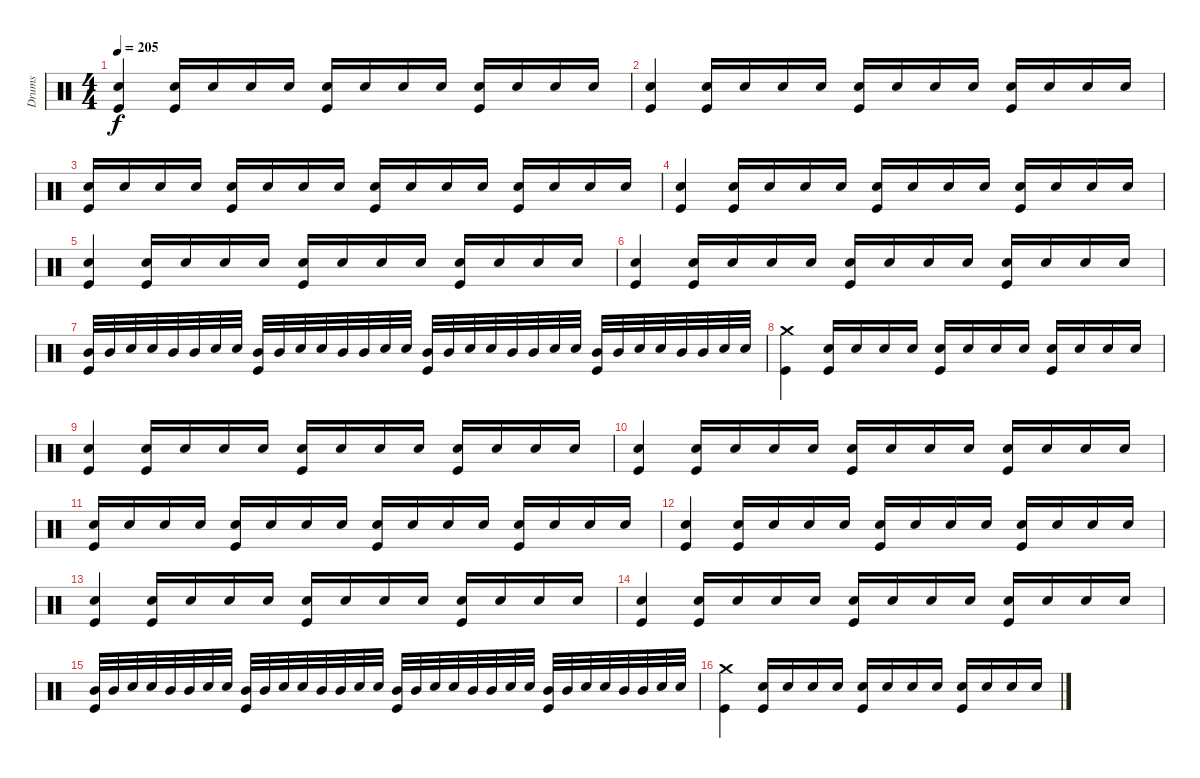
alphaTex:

\track ("Drums" "Drums") {instrument percussion}
\staff {score}
\articulation defaults
\ts (4 4)
\tempo 205
\clef neutral
\ks c
("Electric Snare (hit)" "Kick (hit)").4{dy f} ("Electric Snare (hit)" "Kick (hit)").16 "Electric Snare (hit)".16 "Electric Snare (hit)".16 "Electric Snare (hit)".16 ("Electric Snare (hit)" "Kick (hit)").16 "Electric Snare (hit)".16 "Electric Snare (hit)".16 "Electric Snare (hit)".16 ("Electric Snare (hit)" "Kick (hit)").16 "Electric Snare (hit)".16 "Electric Snare (hit)".16 "Electric Snare (hit)".16 |
("Electric Snare (hit)" "Kick (hit)").4 ("Electric Snare (hit)" "Kick (hit)").16 "Electric Snare (hit)".16 "Electric Snare (hit)".16 "Electric Snare (hit)".16 ("Electric Snare (hit)" "Kick (hit)").16 "Electric Snare (hit)".16 "Electric Snare (hit)".16 "Electric Snare (hit)".16 ("Electric Snare (hit)" "Kick (hit)").16 "Electric Snare (hit)".16 "Electric Snare (hit)".16 "Electric Snare (hit)".16 |
("Electric Snare (hit)" "Kick (hit)").16 "Electric Snare (hit)".16 "Electric Snare (hit)".16 "Electric Snare (hit)".16 ("Electric Snare (hit)" "Kick (hit)").16 "Electric Snare (hit)".16 "Electric Snare (hit)".16 "Electric Snare (hit)".16 ("Electric Snare (hit)" "Kick (hit)").16 "Electric Snare (hit)".16 "Electric Snare (hit)".16 "Electric Snare (hit)".16 ("Electric Snare (hit)" "Kick (hit)").16 "Electric Snare (hit)".16 "Electric Snare (hit)".16 "Electric Snare (hit)".16 |
("Electric Snare (hit)" "Kick (hit)").4 ("Electric Snare (hit)" "Kick (hit)").16 "Electric Snare (hit)".16 "Electric Snare (hit)".16 "Electric Snare (hit)".16 ("Electric Snare (hit)" "Kick (hit)").16 "Electric Snare (hit)".16 "Electric Snare (hit)".16 "Electric Snare (hit)".16 ("Electric Snare (hit)" "Kick (hit)").16 "Electric Snare (hit)".16 "Electric Snare (hit)".16 "Electric Snare (hit)".16 |
("Electric Snare (hit)" "Kick (hit)").4 ("Electric Snare (hit)" "Kick (hit)").16 "Electric Snare (hit)".16 "Electric Snare (hit)".16 "Electric Snare (hit)".16 ("Electric Snare (hit)" "Kick (hit)").16 "Electric Snare (hit)".16 "Electric Snare (hit)".16 "Electric Snare (hit)".16 ("Electric Snare (hit)" "Kick (hit)").16 "Electric Snare (hit)".16 "Electric Snare (hit)".16 "Electric Snare (hit)".16 |
("Electric Snare (hit)" "Kick (hit)").4 ("Electric Snare (hit)" "Kick (hit)").16 "Electric Snare (hit)".16 "Electric Snare (hit)".16 "Electric Snare (hit)".16 ("Electric Snare (hit)" "Kick (hit)").16 "Electric Snare (hit)".16 "Electric Snare (hit)".16 "Electric Snare (hit)".16 ("Electric Snare (hit)" "Kick (hit)").16 "Electric Snare (hit)".16 "Electric Snare (hit)".16 "Electric Snare (hit)".16 |
("Mid Tom (hit)" "Kick (hit)").32 "Mid Tom (hit)".32 "Electric Snare (hit)".32 "Electric Snare (hit)".32 "Mid Tom (hit)".32 "Mid Tom (hit)".32 "Electric Snare (hit)".32 "Electric Snare (hit)".32 ("Mid Tom (hit)" "Kick (hit)").32 "Mid Tom (hit)".32 "Electric Snare (hit)".32 "Electric Snare (hit)".32 "Mid Tom (hit)".32 "Mid Tom (hit)".32 "Electric Snare (hit)".32 "Electric Snare (hit)".32 ("Mid Tom (hit)" "Kick (hit)").32 "Mid Tom (hit)".32 "Electric Snare (hit)".32 "Electric Snare (hit)".32 "Mid Tom (hit)".32 "Mid Tom (hit)".32 "Electric Snare (hit)".32 "Electric Snare (hit)".32 ("Mid Tom (hit)" "Kick (hit)").32 "Mid Tom (hit)".32 "Electric Snare (hit)".32 "Electric Snare (hit)".32 "Mid Tom (hit)".32 "Mid Tom (hit)".32 "Electric Snare (hit)".32 "Electric Snare (hit)".32 |
("Crash medium (hit)" "Kick (hit)").4 ("Electric Snare (hit)" "Kick (hit)").16 "Electric Snare (hit)".16 "Electric Snare (hit)".16 "Electric Snare (hit)".16 ("Electric Snare (hit)" "Kick (hit)").16 "Electric Snare (hit)".16 "Electric Snare (hit)".16 "Electric Snare (hit)".16 ("Electric Snare (hit)" "Kick (hit)").16 "Electric Snare (hit)".16 "Electric Snare (hit)".16 "Electric Snare (hit)".16 |
("Electric Snare (hit)" "Kick (hit)").4 ("Electric Snare (hit)" "Kick (hit)").16 "Electric Snare (hit)".16 "Electric Snare (hit)".16 "Electric Snare (hit)".16 ("Electric Snare (hit)" "Kick (hit)").16 "Electric Snare (hit)".16 "Electric Snare (hit)".16 "Electric Snare (hit)".16 ("Electric Snare (hit)" "Kick (hit)").16 "Electric Snare (hit)".16 "Electric Snare (hit)".16 "Electric Snare (hit)".16 |
("Electric Snare (hit)" "Kick (hit)").4 ("Electric Snare (hit)" "Kick (hit)").16 "Electric Snare (hit)".16 "Electric Snare (hit)".16 "Electric Snare (hit)".16 ("Electric Snare (hit)" "Kick (hit)").16 "Electric Snare (hit)".16 "Electric Snare (hit)".16 "Electric Snare (hit)".16 ("Electric Snare (hit)" "Kick (hit)").16 "Electric Snare (hit)".16 "Electric Snare (hit)".16 "Electric Snare (hit)".16 |
("Electric Snare (hit)" "Kick (hit)").16 "Electric Snare (hit)".16 "Electric Snare (hit)".16 "Electric Snare (hit)".16 ("Electric Snare (hit)" "Kick (hit)").16 "Electric Snare (hit)".16 "Electric Snare (hit)".16 "Electric Snare (hit)".16 ("Electric Snare (hit)" "Kick (hit)").16 "Electric Snare (hit)".16 "Electric Snare (hit)".16 "Electric Snare (hit)".16 ("Electric Snare (hit)" "Kick (hit)").16 "Electric Snare (hit)".16 "Electric Snare (hit)".16 "Electric Snare (hit)".16 |
("Electric Snare (hit)" "Kick (hit)").4 ("Electric Snare (hit)" "Kick (hit)").16 "Electric Snare (hit)".16 "Electric Snare (hit)".16 "Electric Snare (hit)".16 ("Electric Snare (hit)" "Kick (hit)").16 "Electric Snare (hit)".16 "Electric Snare (hit)".16 "Electric Snare (hit)".16 ("Electric Snare (hit)" "Kick (hit)").16 "Electric Snare (hit)".16 "Electric Snare (hit)".16 "Electric Snare (hit)".16 |
("Electric Snare (hit)" "Kick (hit)").4 ("Electric Snare (hit)" "Kick (hit)").16 "Electric Snare (hit)".16 "Electric Snare (hit)".16 "Electric Snare (hit)".16 ("Electric Snare (hit)" "Kick (hit)").16 "Electric Snare (hit)".16 "Electric Snare (hit)".16 "Electric Snare (hit)".16 ("Electric Snare (hit)" "Kick (hit)").16 "Electric Snare (hit)".16 "Electric Snare (hit)".16 "Electric Snare (hit)".16 |
("Electric Snare (hit)" "Kick (hit)").4 ("Electric Snare (hit)" "Kick (hit)").16 "Electric Snare (hit)".16 "Electric Snare (hit)".16 "Electric Snare (hit)".16 ("Electric Snare (hit)" "Kick (hit)").16 "Electric Snare (hit)".16 "Electric Snare (hit)".16 "Electric Snare (hit)".16 ("Electric Snare (hit)" "Kick (hit)").16 "Electric Snare (hit)".16 "Electric Snare (hit)".16 "Electric Snare (hit)".16 |
("Mid Tom (hit)" "Kick (hit)").32 "Mid Tom (hit)".32 "Electric Snare (hit)".32 "Electric Snare (hit)".32 "Mid Tom (hit)".32 "Mid Tom (hit)".32 "Electric Snare (hit)".32 "Electric Snare (hit)".32 ("Mid Tom (hit)" "Kick (hit)").32 "Mid Tom (hit)".32 "Electric Snare (hit)".32 "Electric Snare (hit)".32 "Mid Tom (hit)".32 "Mid Tom (hit)".32 "Electric Snare (hit)".32 "Electric Snare (hit)".32 ("Mid Tom (hit)" "Kick (hit)").32 "Mid Tom (hit)".32 "Electric Snare (hit)".32 "Electric Snare (hit)".32 "Mid Tom (hit)".32 "Mid Tom (hit)".32 "Electric Snare (hit)".32 "Electric Snare (hit)".32 ("Mid Tom (hit)" "Kick (hit)").32 "Mid Tom (hit)".32 "Electric Snare (hit)".32 "Electric Snare (hit)".32 "Mid Tom (hit)".32 "Mid Tom (hit)".32 "Electric Snare (hit)".32 "Electric Snare (hit)".32 |
("Crash medium (hit)" "Kick (hit)").4 ("Electric Snare (hit)" "Kick (hit)").16 "Electric Snare (hit)".16 "Electric Snare (hit)".16 "Electric Snare (hit)".16 ("Electric Snare (hit)" "Kick (hit)").16 "Electric Snare (hit)".16 "Electric Snare (hit)".16 "Electric Snare (hit)".16 ("Electric Snare (hit)" "Kick (hit)").16 "Electric Snare (hit)".16 "Electric Snare (hit)".16 "Electric Snare (hit)".16
